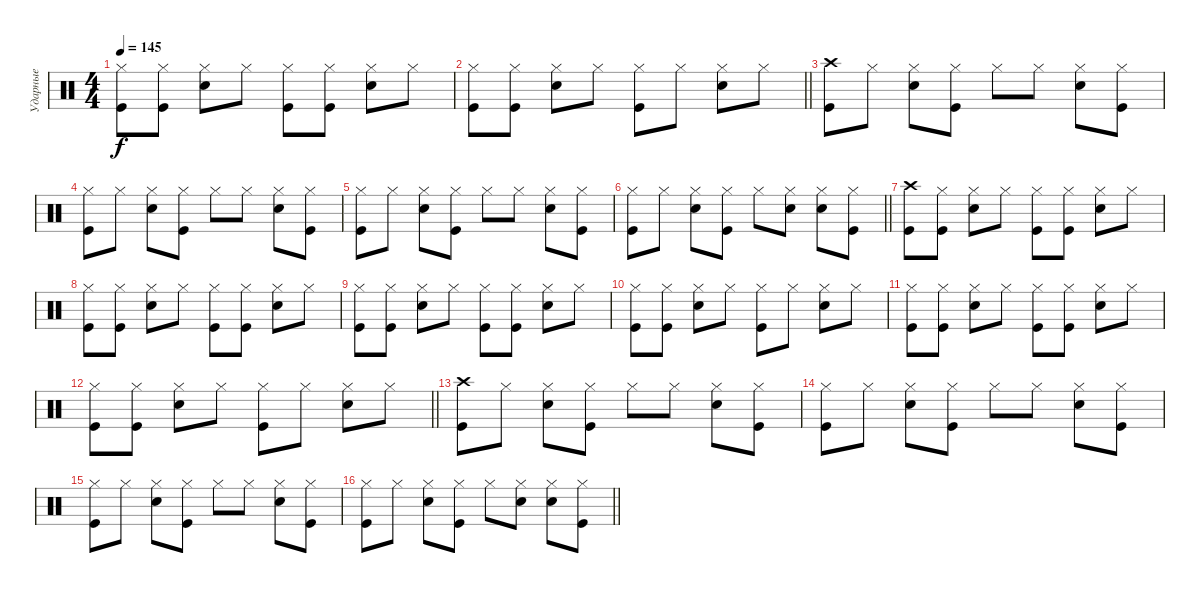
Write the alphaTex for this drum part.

\track ("Ударные" "Ударные") {instrument percussion}
\staff {score}
\articulation defaults
\ts (4 4)
\tempo 145
\clef neutral
\ks c
("Hi-Hat (closed)" "Kick (hit)").8{dy f} ("Hi-Hat (closed)" "Kick (hit)").8 ("Hi-Hat (closed)" "Snare (hit) 2").8 "Hi-Hat (closed)".8 ("Hi-Hat (closed)" "Kick (hit)").8 ("Hi-Hat (closed)" "Kick (hit)").8 ("Hi-Hat (closed)" "Snare (hit) 2").8 "Hi-Hat (closed)".8 |
\barLineRight lightlight
("Hi-Hat (closed)" "Kick (hit)").8 ("Hi-Hat (closed)" "Kick (hit)").8 ("Hi-Hat (closed)" "Snare (hit) 2").8 "Hi-Hat (closed)".8 ("Hi-Hat (closed)" "Kick (hit)").8 "Hi-Hat (closed)".8 ("Hi-Hat (closed)" "Snare (hit) 2").8 "Hi-Hat (closed)".8 |
("Crash high (hit)" "Kick (hit)").8 "Hi-Hat (closed)".8 ("Hi-Hat (closed)" "Snare (hit) 2").8 ("Hi-Hat (closed)" "Kick (hit)").8 "Hi-Hat (closed)".8 "Hi-Hat (closed)".8 ("Hi-Hat (closed)" "Snare (hit) 2").8 ("Hi-Hat (closed)" "Kick (hit)").8 |
("Hi-Hat (closed)" "Kick (hit)").8 "Hi-Hat (closed)".8 ("Hi-Hat (closed)" "Snare (hit) 2").8 ("Hi-Hat (closed)" "Kick (hit)").8 "Hi-Hat (closed)".8 "Hi-Hat (closed)".8 ("Hi-Hat (closed)" "Snare (hit) 2").8 ("Hi-Hat (closed)" "Kick (hit)").8 |
("Hi-Hat (closed)" "Kick (hit)").8 "Hi-Hat (closed)".8 ("Hi-Hat (closed)" "Snare (hit) 2").8 ("Hi-Hat (closed)" "Kick (hit)").8 "Hi-Hat (closed)".8 "Hi-Hat (closed)".8 ("Hi-Hat (closed)" "Snare (hit) 2").8 ("Hi-Hat (closed)" "Kick (hit)").8 |
\barLineRight lightlight
("Hi-Hat (closed)" "Kick (hit)").8 "Hi-Hat (closed)".8 ("Hi-Hat (closed)" "Snare (hit) 2").8 ("Hi-Hat (closed)" "Kick (hit)").8 "Hi-Hat (closed)".8 ("Hi-Hat (closed)" "Snare (hit) 2").8 ("Hi-Hat (closed)" "Snare (hit) 2").8 ("Hi-Hat (closed)" "Kick (hit)").8 |
("Crash high (hit)" "Kick (hit)").8 ("Hi-Hat (closed)" "Kick (hit)").8 ("Hi-Hat (closed)" "Snare (hit) 2").8 "Hi-Hat (closed)".8 ("Hi-Hat (closed)" "Kick (hit)").8 ("Hi-Hat (closed)" "Kick (hit)").8 ("Hi-Hat (closed)" "Snare (hit) 2").8 "Hi-Hat (closed)".8 |
("Hi-Hat (closed)" "Kick (hit)").8 ("Hi-Hat (closed)" "Kick (hit)").8 ("Hi-Hat (closed)" "Snare (hit) 2").8 "Hi-Hat (closed)".8 ("Hi-Hat (closed)" "Kick (hit)").8 ("Hi-Hat (closed)" "Kick (hit)").8 ("Hi-Hat (closed)" "Snare (hit) 2").8 "Hi-Hat (closed)".8 |
("Hi-Hat (closed)" "Kick (hit)").8 ("Hi-Hat (closed)" "Kick (hit)").8 ("Hi-Hat (closed)" "Snare (hit) 2").8 "Hi-Hat (closed)".8 ("Hi-Hat (closed)" "Kick (hit)").8 ("Hi-Hat (closed)" "Kick (hit)").8 ("Hi-Hat (closed)" "Snare (hit) 2").8 "Hi-Hat (closed)".8 |
("Hi-Hat (closed)" "Kick (hit)").8 ("Hi-Hat (closed)" "Kick (hit)").8 ("Hi-Hat (closed)" "Snare (hit) 2").8 "Hi-Hat (closed)".8 ("Hi-Hat (closed)" "Kick (hit)").8 "Hi-Hat (closed)".8 ("Hi-Hat (closed)" "Snare (hit) 2").8 "Hi-Hat (closed)".8 |
("Hi-Hat (closed)" "Kick (hit)").8 ("Hi-Hat (closed)" "Kick (hit)").8 ("Hi-Hat (closed)" "Snare (hit) 2").8 "Hi-Hat (closed)".8 ("Hi-Hat (closed)" "Kick (hit)").8 ("Hi-Hat (closed)" "Kick (hit)").8 ("Hi-Hat (closed)" "Snare (hit) 2").8 "Hi-Hat (closed)".8 |
\barLineRight lightlight
("Hi-Hat (closed)" "Kick (hit)").8 ("Hi-Hat (closed)" "Kick (hit)").8 ("Hi-Hat (closed)" "Snare (hit) 2").8 "Hi-Hat (closed)".8 ("Hi-Hat (closed)" "Kick (hit)").8 "Hi-Hat (closed)".8 ("Hi-Hat (closed)" "Snare (hit) 2").8 "Hi-Hat (closed)".8 |
("Crash high (hit)" "Kick (hit)").8 "Hi-Hat (closed)".8 ("Hi-Hat (closed)" "Snare (hit) 2").8 ("Hi-Hat (closed)" "Kick (hit)").8 "Hi-Hat (closed)".8 "Hi-Hat (closed)".8 ("Hi-Hat (closed)" "Snare (hit) 2").8 ("Hi-Hat (closed)" "Kick (hit)").8 |
("Hi-Hat (closed)" "Kick (hit)").8 "Hi-Hat (closed)".8 ("Hi-Hat (closed)" "Snare (hit) 2").8 ("Hi-Hat (closed)" "Kick (hit)").8 "Hi-Hat (closed)".8 "Hi-Hat (closed)".8 ("Hi-Hat (closed)" "Snare (hit) 2").8 ("Hi-Hat (closed)" "Kick (hit)").8 |
("Hi-Hat (closed)" "Kick (hit)").8 "Hi-Hat (closed)".8 ("Hi-Hat (closed)" "Snare (hit) 2").8 ("Hi-Hat (closed)" "Kick (hit)").8 "Hi-Hat (closed)".8 "Hi-Hat (closed)".8 ("Hi-Hat (closed)" "Snare (hit) 2").8 ("Hi-Hat (closed)" "Kick (hit)").8 |
\barLineRight lightlight
("Hi-Hat (closed)" "Kick (hit)").8 "Hi-Hat (closed)".8 ("Hi-Hat (closed)" "Snare (hit) 2").8 ("Hi-Hat (closed)" "Kick (hit)").8 "Hi-Hat (closed)".8 ("Hi-Hat (closed)" "Snare (hit) 2").8 ("Hi-Hat (closed)" "Snare (hit) 2").8 ("Hi-Hat (closed)" "Kick (hit)").8
